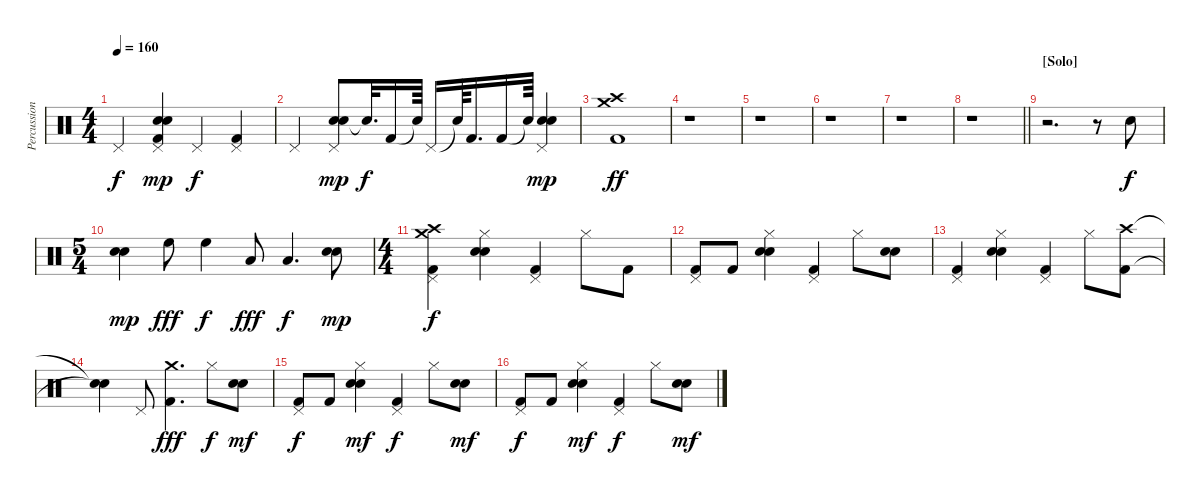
\track ("Percussion" "Percussion") {instrument percussion}
\staff {score}
\articulation defaults
\ts (4 4)
\tempo 160
\clef neutral
\ks c "Pedal Hi-Hat (hit)".4{dy f}
("Snare (hit) 2" "Pedal Hi-Hat (hit)" "Kick (hit) 2" "Electric Snare (hit)").4{dy mp} "Pedal Hi-Hat (hit)".4{dy f} ("Kick (hit) 2" "Pedal Hi-Hat (hit)").4 |
"Pedal Hi-Hat (hit)".4 ("Snare (hit) 2" "Electric Snare (hit)" "Pedal Hi-Hat (hit)").8{dy mp} "Snare (hit)"{t}.32{d dy f} "Kick (hit) 2".16 "Snare (hit)"{t}.64 "Pedal Hi-Hat (hit)".16 "Snare (hit)"{t}.64 "Kick (hit) 2".16{d} "Kick (hit) 2".16 "Snare (hit)"{t}.64 ("Snare (hit) 2" "Electric Snare (hit)" "Pedal Hi-Hat (hit)").4{dy mp} |
("Kick (hit) 2" "Crash high (hit)" "Crash medium (hit)").1{dy ff} |
r.1 |
r.1 |
r.1 |
r.1 |
\barLineRight lightlight
r.1 |
\section ("" "[Solo]")
r.2{d} r.8 "Snare (hit) 2".8{dy f volume 12} |
\ts (5 4)
("Snare (hit) 2" "Electric Snare (hit)").4{dy mp} "High Floor Tom (hit)".8{dy fff} "High Floor Tom (hit)".4{dy f} "Low Tom (hit)".8{dy fff} "Low Tom (hit)".4{d dy f} ("Snare (hit) 2" "Electric Snare (hit)").8{dy mp} |
\ts (4 4)
("Crash high (hit)" "Kick (hit) 2" "Pedal Hi-Hat (hit)" "Crash medium (hit)").4{dy f} ("Hi-Hat (closed)" "Snare (hit) 2" "Electric Snare (hit)").4 ("Pedal Hi-Hat (hit)" "Kick (hit) 2").4 "Hi-Hat (closed)".8 "Kick (hit) 2".8 |
("Pedal Hi-Hat (hit)" "Kick (hit) 2").8 "Kick (hit) 2".8 ("Hi-Hat (closed)" "Snare (hit) 2" "Electric Snare (hit)").4 ("Pedal Hi-Hat (hit)" "Kick (hit) 2").4 "Hi-Hat (closed)".8 ("Snare (hit) 2" "Electric Snare (hit)").8 |
("Kick (hit) 2" "Pedal Hi-Hat (hit)").4 ("Snare (hit) 2" "Hi-Hat (closed)" "Electric Snare (hit)").4 ("Kick (hit) 2" "Pedal Hi-Hat (hit)").4 "Hi-Hat (closed)".8 ("Crash high (hit)" "Kick (hit) 2").8 |
("Snare (hit)"{t} "Snare (hit)"{t}).4 "Pedal Hi-Hat (hit)".8 ("Crash medium (hit)" "Kick (hit) 2").4{d dy fff} "Hi-Hat (closed)".8{dy f} ("Snare (hit) 2" "Electric Snare (hit)").8{dy mf} |
("Pedal Hi-Hat (hit)" "Kick (hit) 2").8{dy f} "Kick (hit) 2".8 ("Hi-Hat (closed)" "Snare (hit) 2" "Electric Snare (hit)").4{dy mf} ("Pedal Hi-Hat (hit)" "Kick (hit) 2").4{dy f} "Hi-Hat (closed)".8 ("Snare (hit) 2" "Electric Snare (hit)").8{dy mf} |
("Pedal Hi-Hat (hit)" "Kick (hit) 2").8{dy f} "Kick (hit) 2".8 ("Hi-Hat (closed)" "Snare (hit) 2" "Electric Snare (hit)").4{dy mf} ("Pedal Hi-Hat (hit)" "Kick (hit) 2").4{dy f} "Hi-Hat (closed)".8 ("Snare (hit) 2" "Electric Snare (hit)").8{dy mf}
